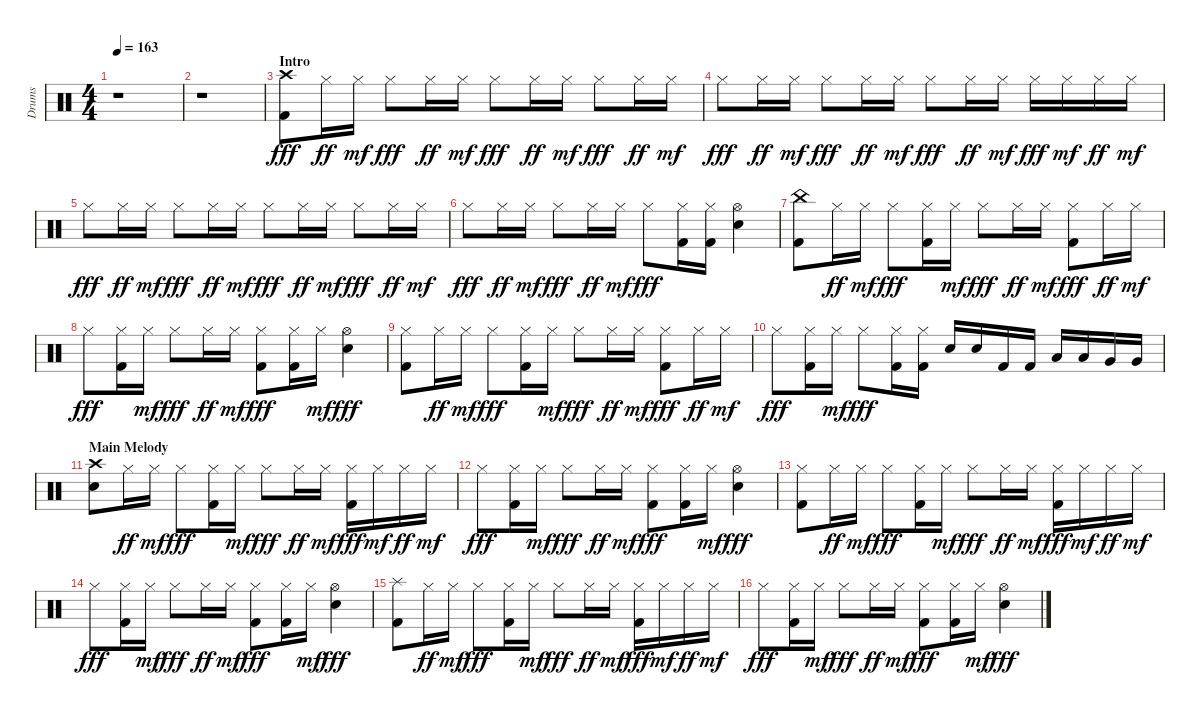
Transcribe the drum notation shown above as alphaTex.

\track ("Drums" "Drums") {instrument percussion}
\staff {score}
\articulation defaults
\ts (4 4)
\tempo 163
\clef neutral
\ks aminor
r.1{dy fff} |
r.1 |
\section ("" "Intro")
("Kick (hit) 2" "Crash high (hit)").8 "Hi-Hat (closed)".16{dy ff} "Hi-Hat (closed)".16{dy mf} "Hi-Hat (closed)".8{dy fff} "Hi-Hat (closed)".16{dy ff} "Hi-Hat (closed)".16{dy mf} "Hi-Hat (closed)".8{dy fff} "Hi-Hat (closed)".16{dy ff} "Hi-Hat (closed)".16{dy mf} "Hi-Hat (closed)".8{dy fff} "Hi-Hat (closed)".16{dy ff} "Hi-Hat (closed)".16{dy mf} |
"Hi-Hat (closed)".8{dy fff} "Hi-Hat (closed)".16{dy ff} "Hi-Hat (closed)".16{dy mf} "Hi-Hat (closed)".8{dy fff} "Hi-Hat (closed)".16{dy ff} "Hi-Hat (closed)".16{dy mf} "Hi-Hat (closed)".8{dy fff} "Hi-Hat (closed)".16{dy ff} "Hi-Hat (closed)".16{dy mf} "Hi-Hat (closed)".16{dy fff} "Hi-Hat (closed)".16{dy mf} "Hi-Hat (closed)".16{dy ff} "Hi-Hat (closed)".16{dy mf} |
"Hi-Hat (closed)".8{dy fff} "Hi-Hat (closed)".16{dy ff} "Hi-Hat (closed)".16{dy mf} "Hi-Hat (closed)".8{dy fff} "Hi-Hat (closed)".16{dy ff} "Hi-Hat (closed)".16{dy mf} "Hi-Hat (closed)".8{dy fff} "Hi-Hat (closed)".16{dy ff} "Hi-Hat (closed)".16{dy mf} "Hi-Hat (closed)".8{dy fff} "Hi-Hat (closed)".16{dy ff} "Hi-Hat (closed)".16{dy mf} |
"Hi-Hat (closed)".8{dy fff} "Hi-Hat (closed)".16{dy ff} "Hi-Hat (closed)".16{dy mf} "Hi-Hat (closed)".8{dy fff} "Hi-Hat (closed)".16{dy ff} "Hi-Hat (closed)".16{dy mf} "Hi-Hat (closed)".8{dy fff} ("Kick (hit) 2" "Hi-Hat (closed)").16 ("Kick (hit) 2" "Hi-Hat (closed)").16 ("Snare (hit) 2" "Hi-Hat (open)").4 |
("Kick (hit) 2" "China (hit)").8 "Hi-Hat (closed)".16{dy ff} "Hi-Hat (closed)".16{dy mf} "Hi-Hat (closed)".8{dy fff} ("Kick (hit) 2" "Hi-Hat (closed)").16 "Hi-Hat (closed)".16{dy mf} "Hi-Hat (closed)".8{dy fff} "Hi-Hat (closed)".16{dy ff} "Hi-Hat (closed)".16{dy mf} ("Kick (hit) 2" "Hi-Hat (closed)").8{dy fff} "Hi-Hat (closed)".16{dy ff} "Hi-Hat (closed)".16{dy mf} |
"Hi-Hat (closed)".8{dy fff} ("Kick (hit) 2" "Hi-Hat (closed)").16 "Hi-Hat (closed)".16{dy mf} "Hi-Hat (closed)".8{dy fff} "Hi-Hat (closed)".16{dy ff} "Hi-Hat (closed)".16{dy mf} ("Kick (hit) 2" "Hi-Hat (closed)").8{dy fff} ("Kick (hit) 2" "Hi-Hat (closed)").16 "Hi-Hat (closed)".16{dy mf} ("Snare (hit) 2" "Hi-Hat (open)").4{dy fff} |
("Kick (hit) 2" "Hi-Hat (closed)").8 "Hi-Hat (closed)".16{dy ff} "Hi-Hat (closed)".16{dy mf} "Hi-Hat (closed)".8{dy fff} ("Kick (hit) 2" "Hi-Hat (closed)").16 "Hi-Hat (closed)".16{dy mf} "Hi-Hat (closed)".8{dy fff} "Hi-Hat (closed)".16{dy ff} "Hi-Hat (closed)".16{dy mf} ("Kick (hit) 2" "Hi-Hat (closed)").8{dy fff} "Hi-Hat (closed)".16{dy ff} "Hi-Hat (closed)".16{dy mf} |
"Hi-Hat (closed)".8{dy fff} ("Kick (hit) 2" "Hi-Hat (closed)").16 "Hi-Hat (closed)".16{dy mf} "Hi-Hat (closed)".8{dy fff} ("Kick (hit) 2" "Hi-Hat (closed)").16 ("Kick (hit) 2" "Hi-Hat (closed)").16 "Snare (hit) 2".16 "Snare (hit) 2".16 "Kick (hit) 2".16 "Kick (hit) 2".16 "Low Tom (hit)".16 "Low Tom (hit)".16 "Very Low Tom (hit)".16 "Very Low Tom (hit)".16 |
\section ("" "Main Melody")
("Snare (hit) 2" "Crash high (hit)").8 "Hi-Hat (closed)".16{dy ff} "Hi-Hat (closed)".16{dy mf} "Hi-Hat (closed)".8{dy fff} ("Kick (hit) 2" "Hi-Hat (closed)").16 "Hi-Hat (closed)".16{dy mf} "Hi-Hat (closed)".8{dy fff} "Hi-Hat (closed)".16{dy ff} "Hi-Hat (closed)".16{dy mf} ("Kick (hit) 2" "Hi-Hat (closed)").16{dy fff} "Hi-Hat (closed)".16{dy mf} "Hi-Hat (closed)".16{dy ff} "Hi-Hat (closed)".16{dy mf} |
"Hi-Hat (closed)".8{dy fff} ("Kick (hit) 2" "Hi-Hat (closed)").16 "Hi-Hat (closed)".16{dy mf} "Hi-Hat (closed)".8{dy fff} "Hi-Hat (closed)".16{dy ff} "Hi-Hat (closed)".16{dy mf} ("Kick (hit) 2" "Hi-Hat (closed)").8{dy fff} ("Kick (hit) 2" "Hi-Hat (closed)").16 "Hi-Hat (closed)".16{dy mf} ("Snare (hit) 2" "Hi-Hat (open)").4{dy fff} |
("Kick (hit) 2" "Hi-Hat (closed)").8 "Hi-Hat (closed)".16{dy ff} "Hi-Hat (closed)".16{dy mf} "Hi-Hat (closed)".8{dy fff} ("Kick (hit) 2" "Hi-Hat (closed)").16 "Hi-Hat (closed)".16{dy mf} "Hi-Hat (closed)".8{dy fff} "Hi-Hat (closed)".16{dy ff} "Hi-Hat (closed)".16{dy mf} ("Kick (hit) 2" "Hi-Hat (closed)").16{dy fff} "Hi-Hat (closed)".16{dy mf} "Hi-Hat (closed)".16{dy ff} "Hi-Hat (closed)".16{dy mf} |
"Hi-Hat (closed)".8{dy fff} ("Kick (hit) 2" "Hi-Hat (closed)").16 "Hi-Hat (closed)".16{dy mf} "Hi-Hat (closed)".8{dy fff} "Hi-Hat (closed)".16{dy ff} "Hi-Hat (closed)".16{dy mf} ("Kick (hit) 2" "Hi-Hat (closed)").8{dy fff} ("Kick (hit) 2" "Hi-Hat (closed)").16 "Hi-Hat (closed)".16{dy mf} ("Snare (hit) 2" "Hi-Hat (open)").4{dy fff} |
("Kick (hit) 2" "Splash (hit)").8 "Hi-Hat (closed)".16{dy ff} "Hi-Hat (closed)".16{dy mf} "Hi-Hat (closed)".8{dy fff} ("Kick (hit) 2" "Hi-Hat (closed)").16 "Hi-Hat (closed)".16{dy mf} "Hi-Hat (closed)".8{dy fff} "Hi-Hat (closed)".16{dy ff} "Hi-Hat (closed)".16{dy mf} ("Kick (hit) 2" "Hi-Hat (closed)").16{dy fff} "Hi-Hat (closed)".16{dy mf} "Hi-Hat (closed)".16{dy ff} "Hi-Hat (closed)".16{dy mf} |
"Hi-Hat (closed)".8{dy fff} ("Kick (hit) 2" "Hi-Hat (closed)").16 "Hi-Hat (closed)".16{dy mf} "Hi-Hat (closed)".8{dy fff} "Hi-Hat (closed)".16{dy ff} "Hi-Hat (closed)".16{dy mf} ("Kick (hit) 2" "Hi-Hat (closed)").8{dy fff} ("Kick (hit) 2" "Hi-Hat (closed)").16 "Hi-Hat (closed)".16{dy mf} ("Snare (hit) 2" "Hi-Hat (open)").4{dy fff}
